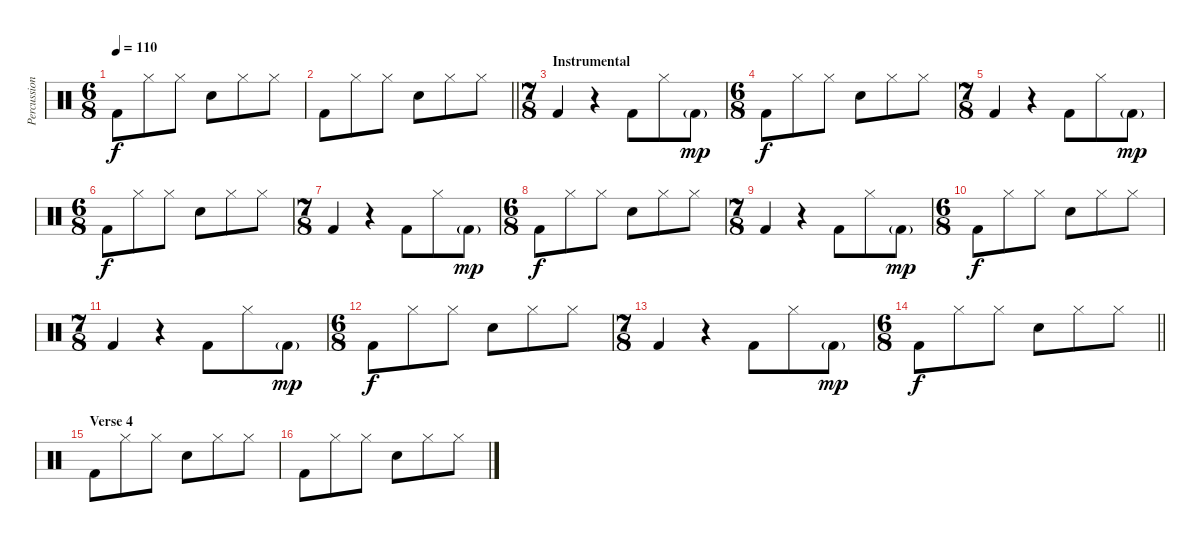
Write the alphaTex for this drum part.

\track ("Percussion" "Percussion") {instrument percussion}
\staff {score}
\articulation defaults
\ts (6 8)
\tempo 110
\clef neutral
\ks c "Kick (hit) 2".8{dy f} "Hi-Hat (closed)".8 "Hi-Hat (closed)".8 "Snare (hit) 2".8 "Hi-Hat (closed)".8 "Hi-Hat (closed)".8
|
\barLineRight lightlight "Kick (hit) 2".8 "Hi-Hat (closed)".8 "Hi-Hat (closed)".8 "Snare (hit) 2".8 "Hi-Hat (closed)".8 "Hi-Hat (closed)".8
|
\ts (7 8)
\section ("" "Instrumental")
"Kick (hit) 2".4 r.4 "Kick (hit) 2".8 "Hi-Hat (closed)".8 "Kick (hit) 2"{g}.8{dy mp} |
\ts (6 8)
"Kick (hit) 2".8{dy f} "Hi-Hat (closed)".8 "Hi-Hat (closed)".8 "Snare (hit) 2".8 "Hi-Hat (closed)".8 "Hi-Hat (closed)".8 |
\ts (7 8)
"Kick (hit) 2".4 r.4 "Kick (hit) 2".8 "Hi-Hat (closed)".8 "Kick (hit) 2"{g}.8{dy mp} |
\ts (6 8)
"Kick (hit) 2".8{dy f} "Hi-Hat (closed)".8 "Hi-Hat (closed)".8 "Snare (hit) 2".8 "Hi-Hat (closed)".8 "Hi-Hat (closed)".8 |
\ts (7 8)
"Kick (hit) 2".4 r.4 "Kick (hit) 2".8 "Hi-Hat (closed)".8 "Kick (hit) 2"{g}.8{dy mp} |
\ts (6 8)
"Kick (hit) 2".8{dy f} "Hi-Hat (closed)".8 "Hi-Hat (closed)".8 "Snare (hit) 2".8 "Hi-Hat (closed)".8 "Hi-Hat (closed)".8 |
\ts (7 8)
"Kick (hit) 2".4 r.4 "Kick (hit) 2".8 "Hi-Hat (closed)".8 "Kick (hit) 2"{g}.8{dy mp} |
\ts (6 8)
"Kick (hit) 2".8{dy f} "Hi-Hat (closed)".8 "Hi-Hat (closed)".8 "Snare (hit) 2".8 "Hi-Hat (closed)".8 "Hi-Hat (closed)".8 |
\ts (7 8)
"Kick (hit) 2".4 r.4 "Kick (hit) 2".8 "Hi-Hat (closed)".8 "Kick (hit) 2"{g}.8{dy mp} |
\ts (6 8)
"Kick (hit) 2".8{dy f} "Hi-Hat (closed)".8 "Hi-Hat (closed)".8 "Snare (hit) 2".8 "Hi-Hat (closed)".8 "Hi-Hat (closed)".8 |
\ts (7 8)
"Kick (hit) 2".4 r.4 "Kick (hit) 2".8 "Hi-Hat (closed)".8 "Kick (hit) 2"{g}.8{dy mp} |
\ts (6 8)
\barLineRight lightlight "Kick (hit) 2".8{dy f} "Hi-Hat (closed)".8 "Hi-Hat (closed)".8 "Snare (hit) 2".8 "Hi-Hat (closed)".8 "Hi-Hat (closed)".8
|
\section ("" "Verse 4")
"Kick (hit) 2".8 "Hi-Hat (closed)".8 "Hi-Hat (closed)".8 "Snare (hit) 2".8 "Hi-Hat (closed)".8 "Hi-Hat (closed)".8 |
"Kick (hit) 2".8 "Hi-Hat (closed)".8 "Hi-Hat (closed)".8 "Snare (hit) 2".8 "Hi-Hat (closed)".8 "Hi-Hat (closed)".8
